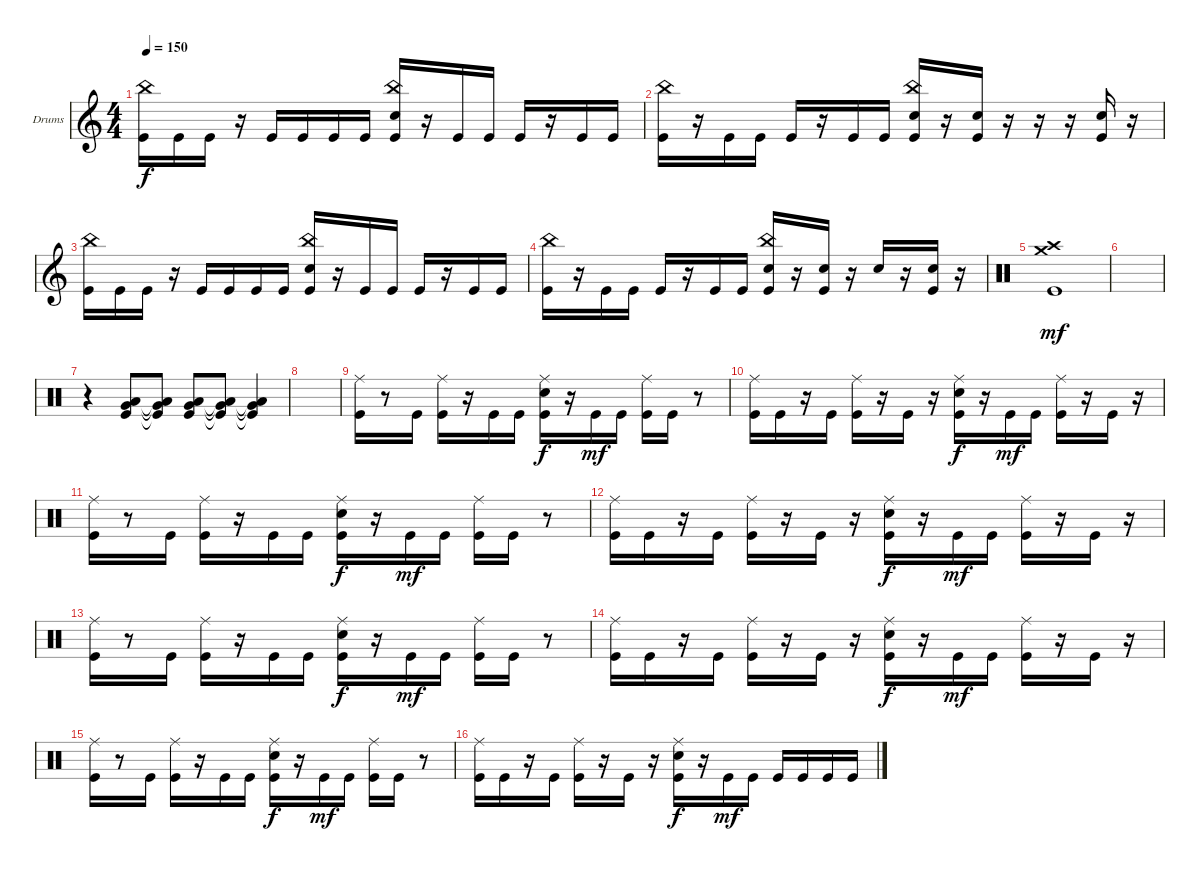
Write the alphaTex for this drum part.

\defaultSystemsLayout 4
\bracketExtendMode groupsimilarinstruments
\firstSystemTrackNameOrientation horizontal
\otherSystemsTrackNameOrientation horizontal
\track ("Drumkit" "Drums") {instrument percussion}
\staff {score}
\articulation defaults
\ts (4 4)
\tempo 150
\clef g2
\ks c
("Kick (hit)" "China (hit)").16{dy f} "Kick (hit)".16 "Kick (hit)".16 r.16 "Kick (hit)".16 "Kick (hit)".16 "Kick (hit)".16 "Kick (hit)".16 ("Kick (hit)" "Snare (hit) 2" "China (hit)").16 r.16 "Kick (hit)".16 "Kick (hit)".16 "Kick (hit)".16 r.16 "Kick (hit)".16 "Kick (hit)".16 |
("Kick (hit)" "China (hit)").16 r.16 "Kick (hit)".16 "Kick (hit)".16 "Kick (hit)".16 r.16 "Kick (hit)".16 "Kick (hit)".16 ("Kick (hit)" "Snare (hit) 2" "China (hit)").16 r.16 ("Kick (hit)" "Snare (hit) 2").16 r.16 r.16 r.16 ("Kick (hit)" "Snare (hit) 2").16 r.16 |
("Kick (hit)" "China (hit)").16 "Kick (hit)".16 "Kick (hit)".16 r.16 "Kick (hit)".16 "Kick (hit)".16 "Kick (hit)".16 "Kick (hit)".16 ("Kick (hit)" "Snare (hit) 2" "China (hit)").16 r.16 "Kick (hit)".16 "Kick (hit)".16 "Kick (hit)".16 r.16 "Kick (hit)".16 "Kick (hit)".16 |
("Kick (hit)" "China (hit)").16 r.16 "Kick (hit)".16 "Kick (hit)".16 "Kick (hit)".16 r.16 "Kick (hit)".16 "Kick (hit)".16 ("Kick (hit)" "Snare (hit) 2" "China (hit)").16 r.16 ("Kick (hit)" "Snare (hit) 2").16 r.16 "Snare (hit) 2".16 r.16 ("Kick (hit)" "Snare (hit) 2").16 r.16 |
\clef neutral
("Crash medium (hit)" "Crash high (hit)" "Kick (hit)").1{dy mf} |
|
r.4 ("Low Tom (hit)" "Very Low Tom (hit)" "Kick (hit)").8 ("Low Tom (hit)"{t} "Very Low Tom (hit)"{t} "Kick (hit)"{t}).8 ("Low Tom (hit)" "Very Low Tom (hit)" "Kick (hit)").8 ("Low Tom (hit)"{t} "Very Low Tom (hit)"{t} "Kick (hit)"{t}).8 ("Low Tom (hit)"{t} "Very Low Tom (hit)"{t} "Kick (hit)"{t}).4 |
|
("Kick (hit)" "Ride (middle)").16 r.8 "Kick (hit)".16 ("Kick (hit)" "Ride (middle)").16 r.16 "Kick (hit)".16 "Kick (hit)".16 ("Kick (hit)" "Ride (middle)" "Snare (hit) 2").16{dy f} r.16 "Kick (hit)".16{dy mf} "Kick (hit)".16 ("Kick (hit)" "Ride (middle)").16 "Kick (hit)".16 r.8 |
("Kick (hit)" "Ride (middle)").16 "Kick (hit)".16 r.16 "Kick (hit)".16 ("Kick (hit)" "Ride (middle)").16 r.16 "Kick (hit)".16 r.16 ("Kick (hit)" "Ride (middle)" "Snare (hit) 2").16{dy f} r.16 "Kick (hit)".16{dy mf} "Kick (hit)".16 ("Kick (hit)" "Ride (middle)").16 r.16 "Kick (hit)".16 r.16 |
("Kick (hit)" "Ride (middle)").16 r.8 "Kick (hit)".16 ("Kick (hit)" "Ride (middle)").16 r.16 "Kick (hit)".16 "Kick (hit)".16 ("Kick (hit)" "Ride (middle)" "Snare (hit) 2").16{dy f} r.16 "Kick (hit)".16{dy mf} "Kick (hit)".16 ("Kick (hit)" "Ride (middle)").16 "Kick (hit)".16 r.8 |
("Kick (hit)" "Ride (middle)").16 "Kick (hit)".16 r.16 "Kick (hit)".16 ("Kick (hit)" "Ride (middle)").16 r.16 "Kick (hit)".16 r.16 ("Kick (hit)" "Ride (middle)" "Snare (hit) 2").16{dy f} r.16 "Kick (hit)".16{dy mf} "Kick (hit)".16 ("Kick (hit)" "Ride (middle)").16 r.16 "Kick (hit)".16 r.16 |
("Kick (hit)" "Ride (middle)").16 r.8 "Kick (hit)".16 ("Kick (hit)" "Ride (middle)").16 r.16 "Kick (hit)".16 "Kick (hit)".16 ("Kick (hit)" "Ride (middle)" "Snare (hit) 2").16{dy f} r.16 "Kick (hit)".16{dy mf} "Kick (hit)".16 ("Kick (hit)" "Ride (middle)").16 "Kick (hit)".16 r.8 |
("Kick (hit)" "Ride (middle)").16 "Kick (hit)".16 r.16 "Kick (hit)".16 ("Kick (hit)" "Ride (middle)").16 r.16 "Kick (hit)".16 r.16 ("Kick (hit)" "Ride (middle)" "Snare (hit) 2").16{dy f} r.16 "Kick (hit)".16{dy mf} "Kick (hit)".16 ("Kick (hit)" "Ride (middle)").16 r.16 "Kick (hit)".16 r.16 |
("Kick (hit)" "Ride (middle)").16 r.8 "Kick (hit)".16 ("Kick (hit)" "Ride (middle)").16 r.16 "Kick (hit)".16 "Kick (hit)".16 ("Kick (hit)" "Ride (middle)" "Snare (hit) 2").16{dy f} r.16 "Kick (hit)".16{dy mf} "Kick (hit)".16 ("Kick (hit)" "Ride (middle)").16 "Kick (hit)".16 r.8 |
("Kick (hit)" "Ride (middle)").16 "Kick (hit)".16 r.16 "Kick (hit)".16 ("Kick (hit)" "Ride (middle)").16 r.16 "Kick (hit)".16 r.16 ("Kick (hit)" "Ride (middle)" "Snare (hit) 2").16{dy f} r.16 "Kick (hit)".16{dy mf} "Kick (hit)".16 "Kick (hit)".16 "Kick (hit)".16 "Kick (hit)".16 "Kick (hit)".16
